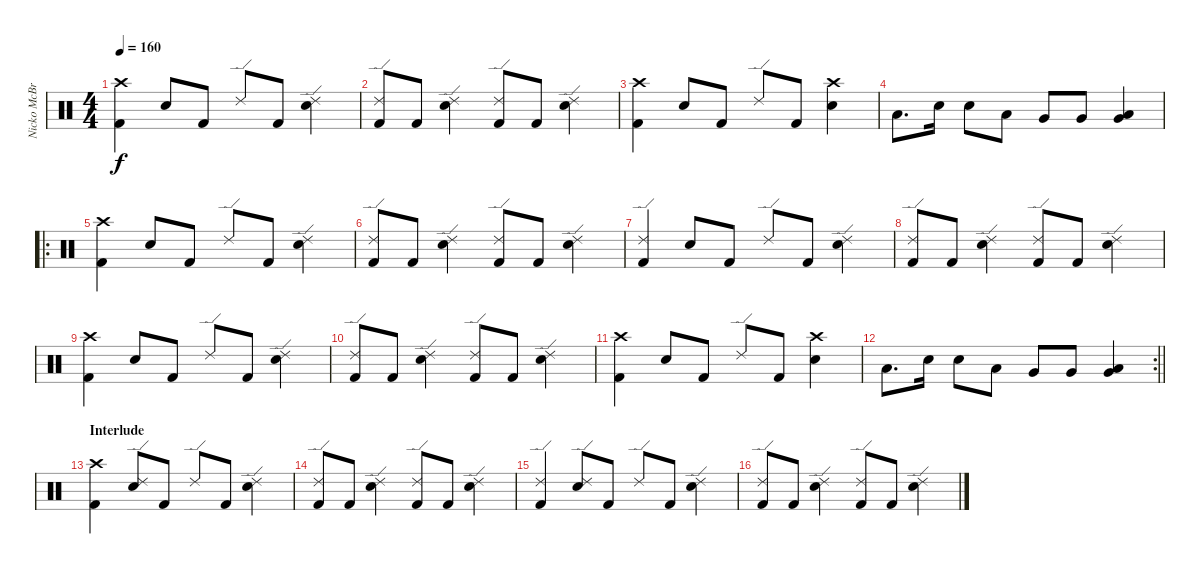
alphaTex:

\track ("Nicko McBrain" "Nicko McBr") {instrument percussion}
\staff {score}
\articulation defaults
\ts (4 4)
\tempo 160
\clef neutral
\ks c
("Crash high (hit)" "Kick (hit) 2").4{dy f} "Electric Snare (hit)".8 "Kick (hit) 2".8 "Ride (edge) 2".8 "Kick (hit) 2".8 ("Ride (edge) 2" "Electric Snare (hit)").4 |
("Ride (edge) 2" "Kick (hit) 2").8 "Kick (hit) 2".8 ("Ride (edge) 2" "Electric Snare (hit)").4 ("Ride (edge) 2" "Kick (hit) 2").8 "Kick (hit) 2".8 ("Ride (edge) 2" "Electric Snare (hit)").4 |
("Crash high (hit)" "Kick (hit) 2").4 "Electric Snare (hit)".8 "Kick (hit) 2".8 "Ride (edge) 2".8 "Kick (hit) 2".8 ("Crash high (hit)" "Electric Snare (hit)").4 |
"Low Tom (hit)".8{d} "Electric Snare (hit)".16 "Electric Snare (hit)".8 "Low Tom (hit)".8 "Very Low Tom (hit)".8 "Very Low Tom (hit)".8 ("Very Low Tom (hit)" "Low Floor Tom (hit)").4 |
\ro
("Crash high (hit)" "Kick (hit) 2").4 "Electric Snare (hit)".8 "Kick (hit) 2".8 "Ride (edge) 2".8 "Kick (hit) 2".8 ("Ride (edge) 2" "Electric Snare (hit)").4 |
("Ride (edge) 2" "Kick (hit) 2").8 "Kick (hit) 2".8 ("Ride (edge) 2" "Electric Snare (hit)").4 ("Ride (edge) 2" "Kick (hit) 2").8 "Kick (hit) 2".8 ("Ride (edge) 2" "Electric Snare (hit)").4 |
("Ride (edge) 2" "Kick (hit) 2").4 "Electric Snare (hit)".8 "Kick (hit) 2".8 "Ride (edge) 2".8 "Kick (hit) 2".8 ("Ride (edge) 2" "Electric Snare (hit)").4 |
("Ride (edge) 2" "Kick (hit) 2").8 "Kick (hit) 2".8 ("Ride (edge) 2" "Electric Snare (hit)").4 ("Ride (edge) 2" "Kick (hit) 2").8 "Kick (hit) 2".8 ("Ride (edge) 2" "Electric Snare (hit)").4 |
("Crash high (hit)" "Kick (hit) 2").4 "Electric Snare (hit)".8 "Kick (hit) 2".8 "Ride (edge) 2".8 "Kick (hit) 2".8 ("Ride (edge) 2" "Electric Snare (hit)").4 |
("Ride (edge) 2" "Kick (hit) 2").8 "Kick (hit) 2".8 ("Ride (edge) 2" "Electric Snare (hit)").4 ("Ride (edge) 2" "Kick (hit) 2").8 "Kick (hit) 2".8 ("Ride (edge) 2" "Electric Snare (hit)").4 |
("Crash high (hit)" "Kick (hit) 2").4 "Electric Snare (hit)".8 "Kick (hit) 2".8 "Ride (edge) 2".8 "Kick (hit) 2".8 ("Crash high (hit)" "Electric Snare (hit)").4 |
\rc 2
\barLineRight lightlight "Low Tom (hit)".8{d} "Electric Snare (hit)".16 "Electric Snare (hit)".8 "Low Tom (hit)".8 "Very Low Tom (hit)".8 "Very Low Tom (hit)".8
("Very Low Tom (hit)" "Low Floor Tom (hit)").4 |
\section ("" "Interlude")
("Crash high (hit)" "Kick (hit) 2").4 ("Ride (edge) 2" "Electric Snare (hit)").8 "Kick (hit) 2".8 "Ride (edge) 2".8 "Kick (hit) 2".8 ("Ride (edge) 2" "Electric Snare (hit)").4 |
("Ride (edge) 2" "Kick (hit) 2").8 "Kick (hit) 2".8 ("Ride (edge) 2" "Electric Snare (hit)").4 ("Ride (edge) 2" "Kick (hit) 2").8 "Kick (hit) 2".8 ("Ride (edge) 2" "Electric Snare (hit)").4 |
("Ride (edge) 2" "Kick (hit) 2").4 ("Ride (edge) 2" "Electric Snare (hit)").8 "Kick (hit) 2".8 "Ride (edge) 2".8 "Kick (hit) 2".8 ("Ride (edge) 2" "Electric Snare (hit)").4 |
("Ride (edge) 2" "Kick (hit) 2").8 "Kick (hit) 2".8 ("Ride (edge) 2" "Electric Snare (hit)").4 ("Ride (edge) 2" "Kick (hit) 2").8 "Kick (hit) 2".8 ("Ride (edge) 2" "Electric Snare (hit)").4
